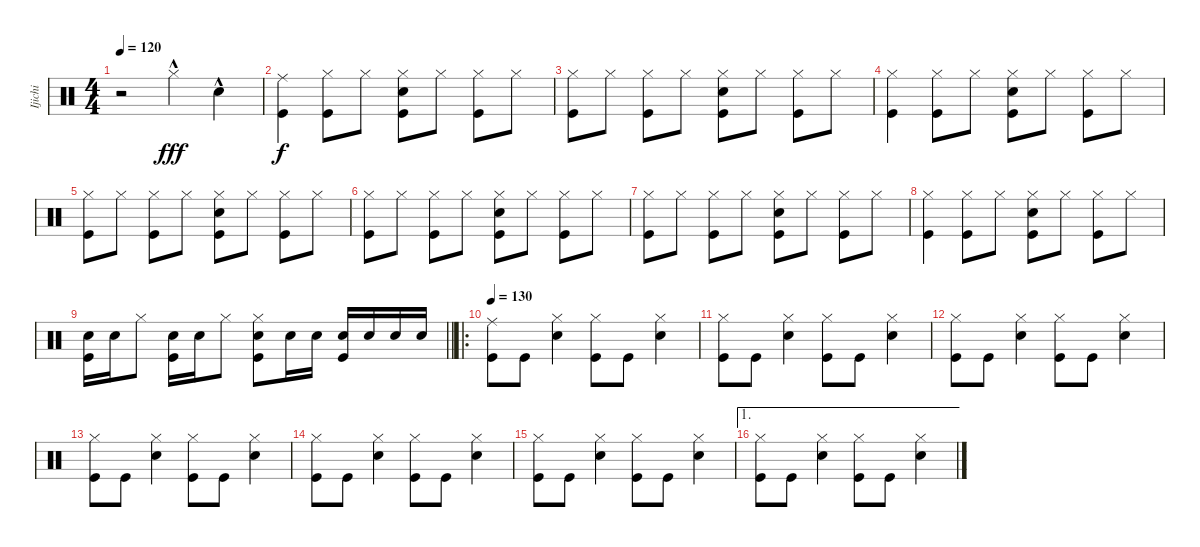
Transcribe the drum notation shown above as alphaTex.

\track ("Ijichi" "Ijichi") {instrument percussion}
\staff {score}
\articulation defaults
\ts (4 4)
\tempo 120
\clef neutral
\ks c
r.2{dy f} "Hi-Hat (closed)"{hac}.4{dy fff} "Snare (hit) 2"{hac}.4 |
("Ride (middle)" "Kick (hit)").4{dy f} ("Hi-Hat (closed)" "Kick (hit)").8 "Hi-Hat (closed)".8 ("Hi-Hat (closed)" "Snare (hit) 2" "Kick (hit)").8 "Hi-Hat (closed)".8 ("Hi-Hat (closed)" "Kick (hit)").8 "Hi-Hat (closed)".8 |
("Hi-Hat (closed)" "Kick (hit)").8 "Hi-Hat (closed)".8 ("Hi-Hat (closed)" "Kick (hit)").8 "Hi-Hat (closed)".8 ("Hi-Hat (closed)" "Snare (hit) 2" "Kick (hit)").8 "Hi-Hat (closed)".8 ("Hi-Hat (closed)" "Kick (hit)").8 "Hi-Hat (closed)".8 |
("Hi-Hat (closed)" "Kick (hit)").4 ("Hi-Hat (closed)" "Kick (hit)").8 "Hi-Hat (closed)".8 ("Hi-Hat (closed)" "Snare (hit) 2" "Kick (hit)").8 "Hi-Hat (closed)".8 ("Hi-Hat (closed)" "Kick (hit)").8 "Hi-Hat (closed)".8 |
("Hi-Hat (closed)" "Kick (hit)").8 "Hi-Hat (closed)".8 ("Hi-Hat (closed)" "Kick (hit)").8 "Hi-Hat (closed)".8 ("Hi-Hat (closed)" "Snare (hit) 2" "Kick (hit)").8 "Hi-Hat (closed)".8 ("Hi-Hat (closed)" "Kick (hit)").8 "Hi-Hat (closed)".8 |
("Hi-Hat (closed)" "Kick (hit)").8 "Hi-Hat (closed)".8 ("Hi-Hat (closed)" "Kick (hit)").8 "Hi-Hat (closed)".8 ("Hi-Hat (closed)" "Snare (hit) 2" "Kick (hit)").8 "Hi-Hat (closed)".8 ("Hi-Hat (closed)" "Kick (hit)").8 "Hi-Hat (closed)".8 |
("Hi-Hat (closed)" "Kick (hit)").8 "Hi-Hat (closed)".8 ("Hi-Hat (closed)" "Kick (hit)").8 "Hi-Hat (closed)".8 ("Hi-Hat (closed)" "Snare (hit) 2" "Kick (hit)").8 "Hi-Hat (closed)".8 ("Hi-Hat (closed)" "Kick (hit)").8 "Hi-Hat (closed)".8 |
("Hi-Hat (closed)" "Kick (hit)").4 ("Hi-Hat (closed)" "Kick (hit)").8 "Hi-Hat (closed)".8 ("Hi-Hat (closed)" "Snare (hit) 2" "Kick (hit)").8 "Hi-Hat (closed)".8 ("Hi-Hat (closed)" "Kick (hit)").8 "Hi-Hat (closed)".8 |
\barLineRight lightlight
("Snare (hit) 2" "Kick (hit)").16 "Snare (hit) 2".16 "Hi-Hat (closed)".8 ("Snare (hit) 2" "Kick (hit)").16 "Snare (hit) 2".16 "Hi-Hat (closed)".8 ("Hi-Hat (closed)" "Snare (hit) 2" "Kick (hit)").8 "Snare (hit) 2".16 "Snare (hit) 2".16 ("Snare (hit) 2" "Kick (hit)").16 "Snare (hit) 2".16 "Snare (hit) 2".16 "Snare (hit) 2".16 |
\ro
\tempo 130
("Ride (middle)" "Kick (hit)").8{volume 13} "Kick (hit)".8 ("Hi-Hat (closed)" "Snare (hit) 2").4 ("Hi-Hat (closed)" "Kick (hit)").8 "Kick (hit)".8 ("Hi-Hat (closed)" "Snare (hit) 2").4 |
("Hi-Hat (closed)" "Kick (hit)").8 "Kick (hit)".8 ("Hi-Hat (closed)" "Snare (hit) 2").4 ("Hi-Hat (closed)" "Kick (hit)").8 "Kick (hit)".8 ("Hi-Hat (closed)" "Snare (hit) 2").4 |
("Hi-Hat (closed)" "Kick (hit)").8 "Kick (hit)".8 ("Hi-Hat (closed)" "Snare (hit) 2").4 ("Hi-Hat (closed)" "Kick (hit)").8 "Kick (hit)".8 ("Hi-Hat (closed)" "Snare (hit) 2").4 |
("Hi-Hat (closed)" "Kick (hit)").8 "Kick (hit)".8 ("Hi-Hat (closed)" "Snare (hit) 2").4 ("Hi-Hat (closed)" "Kick (hit)").8 "Kick (hit)".8 ("Hi-Hat (closed)" "Snare (hit) 2").4 |
("Hi-Hat (closed)" "Kick (hit)").8 "Kick (hit)".8 ("Hi-Hat (closed)" "Snare (hit) 2").4 ("Hi-Hat (closed)" "Kick (hit)").8 "Kick (hit)".8 ("Hi-Hat (closed)" "Snare (hit) 2").4 |
("Hi-Hat (closed)" "Kick (hit)").8 "Kick (hit)".8 ("Hi-Hat (closed)" "Snare (hit) 2").4 ("Hi-Hat (closed)" "Kick (hit)").8 "Kick (hit)".8 ("Hi-Hat (closed)" "Snare (hit) 2").4 |
\ae 1
("Hi-Hat (closed)" "Kick (hit)").8 "Kick (hit)".8 ("Hi-Hat (closed)" "Snare (hit) 2").4 ("Hi-Hat (closed)" "Kick (hit)").8 "Kick (hit)".8 ("Hi-Hat (closed)" "Snare (hit) 2").4
